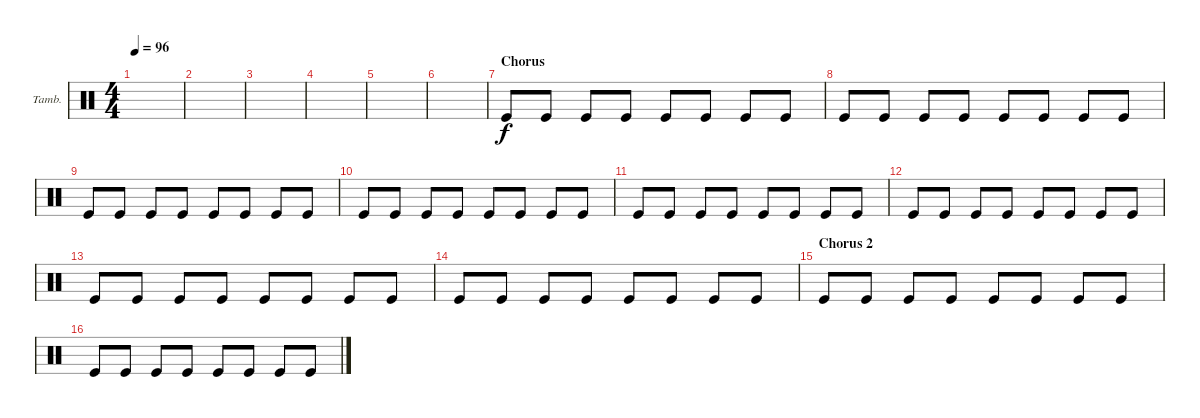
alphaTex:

\defaultSystemsLayout 4
\bracketExtendMode groupsimilarinstruments
\firstSystemTrackNameOrientation horizontal
\otherSystemsTrackNameOrientation horizontal
\track ("Tambourine" "Tamb.") {instrument percussion}
\staff {score}
\articulation defaults
\ts (4 4)
\tempo 96
\clef neutral
\ks c
|
|
|
|
|
|
\section ("" "Chorus")
"Kick (hit)".8 "Kick (hit)".8 "Kick (hit)".8 "Kick (hit)".8 "Kick (hit)".8 "Kick (hit)".8 "Kick (hit)".8 "Kick (hit)".8 |
"Kick (hit)".8 "Kick (hit)".8 "Kick (hit)".8 "Kick (hit)".8 "Kick (hit)".8 "Kick (hit)".8 "Kick (hit)".8 "Kick (hit)".8 |
"Kick (hit)".8 "Kick (hit)".8 "Kick (hit)".8 "Kick (hit)".8 "Kick (hit)".8 "Kick (hit)".8 "Kick (hit)".8 "Kick (hit)".8 |
"Kick (hit)".8 "Kick (hit)".8 "Kick (hit)".8 "Kick (hit)".8 "Kick (hit)".8 "Kick (hit)".8 "Kick (hit)".8 "Kick (hit)".8 |
"Kick (hit)".8 "Kick (hit)".8 "Kick (hit)".8 "Kick (hit)".8 "Kick (hit)".8 "Kick (hit)".8 "Kick (hit)".8 "Kick (hit)".8 |
"Kick (hit)".8 "Kick (hit)".8 "Kick (hit)".8 "Kick (hit)".8 "Kick (hit)".8 "Kick (hit)".8 "Kick (hit)".8 "Kick (hit)".8 |
"Kick (hit)".8 "Kick (hit)".8 "Kick (hit)".8 "Kick (hit)".8 "Kick (hit)".8 "Kick (hit)".8 "Kick (hit)".8 "Kick (hit)".8 |
"Kick (hit)".8 "Kick (hit)".8 "Kick (hit)".8 "Kick (hit)".8 "Kick (hit)".8 "Kick (hit)".8 "Kick (hit)".8 "Kick (hit)".8 |
\section ("" "Chorus 2")
"Kick (hit)".8 "Kick (hit)".8 "Kick (hit)".8 "Kick (hit)".8 "Kick (hit)".8 "Kick (hit)".8 "Kick (hit)".8 "Kick (hit)".8 |
"Kick (hit)".8 "Kick (hit)".8 "Kick (hit)".8 "Kick (hit)".8 "Kick (hit)".8 "Kick (hit)".8 "Kick (hit)".8 "Kick (hit)".8
